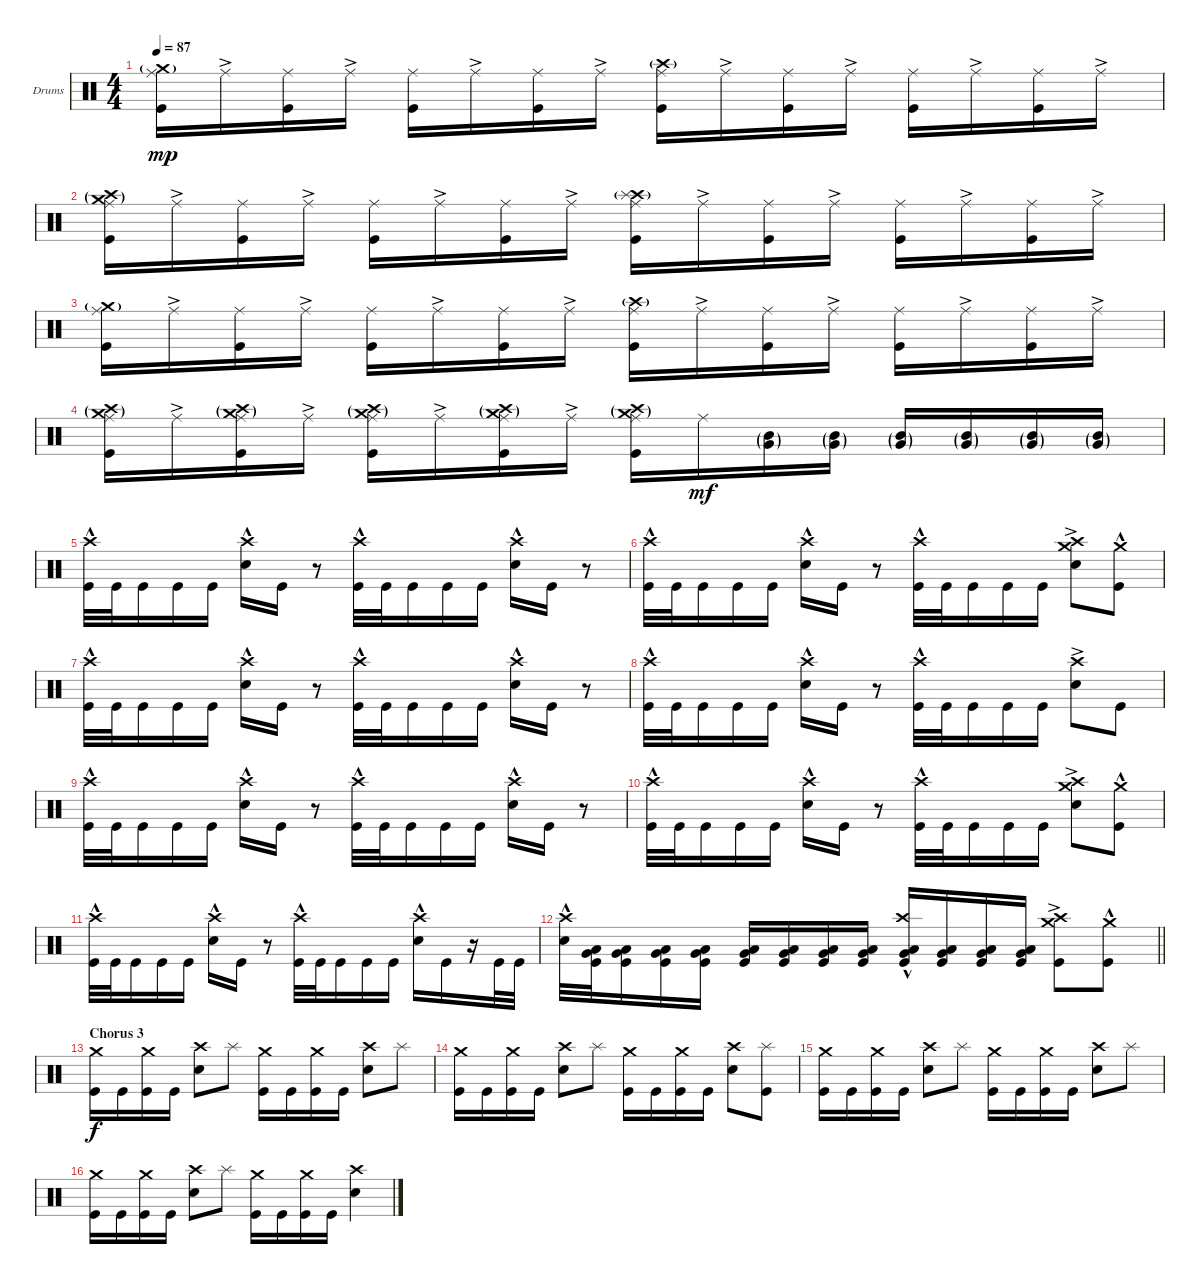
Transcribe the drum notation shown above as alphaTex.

\bracketExtendMode groupsimilarinstruments
\firstSystemTrackNameOrientation horizontal
\otherSystemsTrackNameOrientation horizontal
\track ("Drumkit" "Drums") {instrument percussion}
\staff {score}
\articulation defaults
\ts (4 4)
\tempo 87
\clef neutral
\ks c
("Ride (middle)" "Crash medium (hit)"{g} "Kick (hit)").16{dy mp} "Ride (middle)"{ac}.16 ("Ride (middle)" "Kick (hit)").16 "Ride (middle)"{ac}.16 ("Ride (middle)" "Kick (hit)").16 "Ride (middle)"{ac}.16 ("Ride (middle)" "Kick (hit)").16 "Ride (middle)"{ac}.16 ("Ride (middle)" "Crash high (hit)"{g} "Kick (hit)").16 "Ride (middle)"{ac}.16 ("Ride (middle)" "Kick (hit)").16 "Ride (middle)"{ac}.16 ("Ride (middle)" "Kick (hit)").16 "Ride (middle)"{ac}.16 ("Ride (middle)" "Kick (hit)").16 "Ride (middle)"{ac}.16 |
("Ride (middle)" "Crash high (hit)"{g} "Crash medium (hit)"{g} "Kick (hit)").16 "Ride (middle)"{ac}.16 ("Ride (middle)" "Kick (hit)").16 "Ride (middle)"{ac}.16 ("Ride (middle)" "Kick (hit)").16 "Ride (middle)"{ac}.16 ("Ride (middle)" "Kick (hit)").16 "Ride (middle)"{ac}.16 ("Ride (middle)" "Crash high (hit)"{g} "Splash (hit)"{g} "Kick (hit)").16 "Ride (middle)"{ac}.16 ("Ride (middle)" "Kick (hit)").16 "Ride (middle)"{ac}.16 ("Ride (middle)" "Kick (hit)").16 "Ride (middle)"{ac}.16 ("Ride (middle)" "Kick (hit)").16 "Ride (middle)"{ac}.16 |
("Ride (middle)" "Crash medium (hit)"{g} "Kick (hit)").16 "Ride (middle)"{ac}.16 ("Ride (middle)" "Kick (hit)").16 "Ride (middle)"{ac}.16 ("Ride (middle)" "Kick (hit)").16 "Ride (middle)"{ac}.16 ("Ride (middle)" "Kick (hit)").16 "Ride (middle)"{ac}.16 ("Ride (middle)" "Crash high (hit)"{g} "Kick (hit)").16 "Ride (middle)"{ac}.16 ("Ride (middle)" "Kick (hit)").16 "Ride (middle)"{ac}.16 ("Ride (middle)" "Kick (hit)").16 "Ride (middle)"{ac}.16 ("Ride (middle)" "Kick (hit)").16 "Ride (middle)"{ac}.16 |
("Ride (middle)" "Crash high (hit)"{g} "Crash medium (hit)"{g} "Kick (hit)").16 "Ride (middle)"{ac}.16 ("Ride (middle)" "Crash high (hit)"{g} "Crash medium (hit)"{g} "Kick (hit)").16 "Ride (middle)"{ac}.16 ("Ride (middle)" "Crash high (hit)"{g} "Crash medium (hit)"{g} "Kick (hit)").16 "Ride (middle)"{ac}.16 ("Ride (middle)" "Crash high (hit)"{g} "Crash medium (hit)"{g} "Kick (hit)").16 "Ride (middle)"{ac}.16 ("Ride (middle)" "Crash high (hit)"{g} "Crash medium (hit)"{g} "Kick (hit)").16 "Ride (middle)".16{dy mf} ("Mid Tom (hit)"{g} "Very Low Tom (hit)"{g}).16 ("Mid Tom (hit)"{g} "Very Low Tom (hit)"{g}).16 ("Mid Tom (hit)"{g} "Very Low Tom (hit)"{g}).16 ("Mid Tom (hit)"{g} "Very Low Tom (hit)"{g}).16 ("Mid Tom (hit)"{g} "Very Low Tom (hit)"{g}).16 ("Mid Tom (hit)"{g} "Very Low Tom (hit)"{g}).16 |
("Crash high (hit)"{hac} "Kick (hit)").32 "Kick (hit)".32 "Kick (hit)".16 "Kick (hit)".16 "Kick (hit)".16 ("Crash high (hit)"{hac} "Snare (hit) 2").16 "Kick (hit)".16 r.8 ("Crash high (hit)"{hac} "Kick (hit)").32 "Kick (hit)".32 "Kick (hit)".16 "Kick (hit)".16 "Kick (hit)".16 ("Crash high (hit)"{hac} "Snare (hit) 2").16 "Kick (hit)".16 r.8 |
("Crash high (hit)"{hac} "Kick (hit)").32 "Kick (hit)".32 "Kick (hit)".16 "Kick (hit)".16 "Kick (hit)".16 ("Crash high (hit)"{hac} "Snare (hit) 2").16 "Kick (hit)".16 r.8 ("Crash high (hit)"{hac} "Kick (hit)").32 "Kick (hit)".32 "Kick (hit)".16 "Kick (hit)".16 "Kick (hit)".16 ("Crash high (hit)"{ac} "Crash medium (hit)"{ac} "Snare (hit) 2").8 ("Crash medium (hit)"{hac} "Kick (hit)").8 |
("Crash high (hit)"{hac} "Kick (hit)").32 "Kick (hit)".32 "Kick (hit)".16 "Kick (hit)".16 "Kick (hit)".16 ("Crash high (hit)"{hac} "Snare (hit) 2").16 "Kick (hit)".16 r.8 ("Crash high (hit)"{hac} "Kick (hit)").32 "Kick (hit)".32 "Kick (hit)".16 "Kick (hit)".16 "Kick (hit)".16 ("Crash high (hit)"{hac} "Snare (hit) 2").16 "Kick (hit)".16 r.8 |
("Crash high (hit)"{hac} "Kick (hit)").32 "Kick (hit)".32 "Kick (hit)".16 "Kick (hit)".16 "Kick (hit)".16 ("Crash high (hit)"{hac} "Snare (hit) 2").16 "Kick (hit)".16 r.8 ("Crash high (hit)"{hac} "Kick (hit)").32 "Kick (hit)".32 "Kick (hit)".16 "Kick (hit)".16 "Kick (hit)".16 ("Crash high (hit)"{ac} "Snare (hit) 2").8 "Kick (hit)".8 |
("Crash high (hit)"{hac} "Kick (hit)").32 "Kick (hit)".32 "Kick (hit)".16 "Kick (hit)".16 "Kick (hit)".16 ("Crash high (hit)"{hac} "Snare (hit) 2").16 "Kick (hit)".16 r.8 ("Crash high (hit)"{hac} "Kick (hit)").32 "Kick (hit)".32 "Kick (hit)".16 "Kick (hit)".16 "Kick (hit)".16 ("Crash high (hit)"{hac} "Snare (hit) 2").16 "Kick (hit)".16 r.8 |
("Crash high (hit)"{hac} "Kick (hit)").32 "Kick (hit)".32 "Kick (hit)".16 "Kick (hit)".16 "Kick (hit)".16 ("Crash high (hit)"{hac} "Snare (hit) 2").16 "Kick (hit)".16 r.8 ("Crash high (hit)"{hac} "Kick (hit)").32 "Kick (hit)".32 "Kick (hit)".16 "Kick (hit)".16 "Kick (hit)".16 ("Crash high (hit)"{ac} "Crash medium (hit)"{ac} "Snare (hit) 2").8 ("Crash medium (hit)"{hac} "Kick (hit)").8 |
("Crash high (hit)"{hac} "Kick (hit)").32 "Kick (hit)".32 "Kick (hit)".16 "Kick (hit)".16 "Kick (hit)".16 ("Crash high (hit)"{hac} "Snare (hit) 2").16 "Kick (hit)".16 r.8 ("Crash high (hit)"{hac} "Kick (hit)").32 "Kick (hit)".32 "Kick (hit)".16 "Kick (hit)".16 "Kick (hit)".16 ("Crash high (hit)"{hac} "Snare (hit) 2").16 "Kick (hit)".16 r.16 "Kick (hit)".32 "Kick (hit)".32 |
\barLineRight lightlight
("Crash high (hit)"{hac} "Snare (hit) 2").32 ("Low Tom (hit)" "Very Low Tom (hit)" "Kick (hit)").32 ("Low Tom (hit)" "Very Low Tom (hit)" "Kick (hit)").16 ("Low Tom (hit)" "Very Low Tom (hit)" "Kick (hit)").16 ("Low Tom (hit)" "Very Low Tom (hit)" "Kick (hit)").16 ("Low Tom (hit)" "Very Low Tom (hit)" "Kick (hit)").16 ("Low Tom (hit)" "Very Low Tom (hit)" "Kick (hit)").16 ("Low Tom (hit)" "Very Low Tom (hit)" "Kick (hit)").16 ("Low Tom (hit)" "Very Low Tom (hit)" "Kick (hit)").16 ("Crash high (hit)"{hac} "Low Tom (hit)" "Very Low Tom (hit)" "Kick (hit)").16 ("Low Tom (hit)" "Very Low Tom (hit)" "Kick (hit)").16 ("Low Tom (hit)" "Very Low Tom (hit)" "Kick (hit)").16 ("Low Tom (hit)" "Very Low Tom (hit)" "Kick (hit)").16 ("Crash high (hit)"{ac} "Crash medium (hit)" "Kick (hit)").8 ("Crash medium (hit)"{hac} "Kick (hit)").8 |
\section ("" "Chorus 3")
("Crash medium (hit)" "Kick (hit)").16{dy f} "Kick (hit)".16 ("Crash medium (hit)" "Kick (hit)").16 "Kick (hit)".16 ("Crash high (hit)" "Snare (hit) 2").8 "Splash (hit)".8 ("Crash medium (hit)" "Kick (hit)").16 "Kick (hit)".16 ("Crash medium (hit)" "Kick (hit)").16 "Kick (hit)".16 ("Crash high (hit)" "Snare (hit) 2").8 "Splash (hit)".8 |
("Crash medium (hit)" "Kick (hit)").16 "Kick (hit)".16 ("Crash medium (hit)" "Kick (hit)").16 "Kick (hit)".16 ("Crash high (hit)" "Snare (hit) 2").8 "Splash (hit)".8 ("Crash medium (hit)" "Kick (hit)").16 "Kick (hit)".16 ("Crash medium (hit)" "Kick (hit)").16 "Kick (hit)".16 ("Crash high (hit)" "Snare (hit) 2").8 ("Splash (hit)" "Kick (hit)").8 |
("Crash medium (hit)" "Kick (hit)").16 "Kick (hit)".16 ("Crash medium (hit)" "Kick (hit)").16 "Kick (hit)".16 ("Crash high (hit)" "Snare (hit) 2").8 "Splash (hit)".8 ("Crash medium (hit)" "Kick (hit)").16 "Kick (hit)".16 ("Crash medium (hit)" "Kick (hit)").16 "Kick (hit)".16 ("Crash high (hit)" "Snare (hit) 2").8 "Splash (hit)".8 |
("Crash medium (hit)" "Kick (hit)").16 "Kick (hit)".16 ("Crash medium (hit)" "Kick (hit)").16 "Kick (hit)".16 ("Crash high (hit)" "Snare (hit) 2").8 "Splash (hit)".8 ("Crash medium (hit)" "Kick (hit)").16 "Kick (hit)".16 ("Crash medium (hit)" "Kick (hit)").16 "Kick (hit)".16 ("Crash high (hit)" "Snare (hit) 2").4
